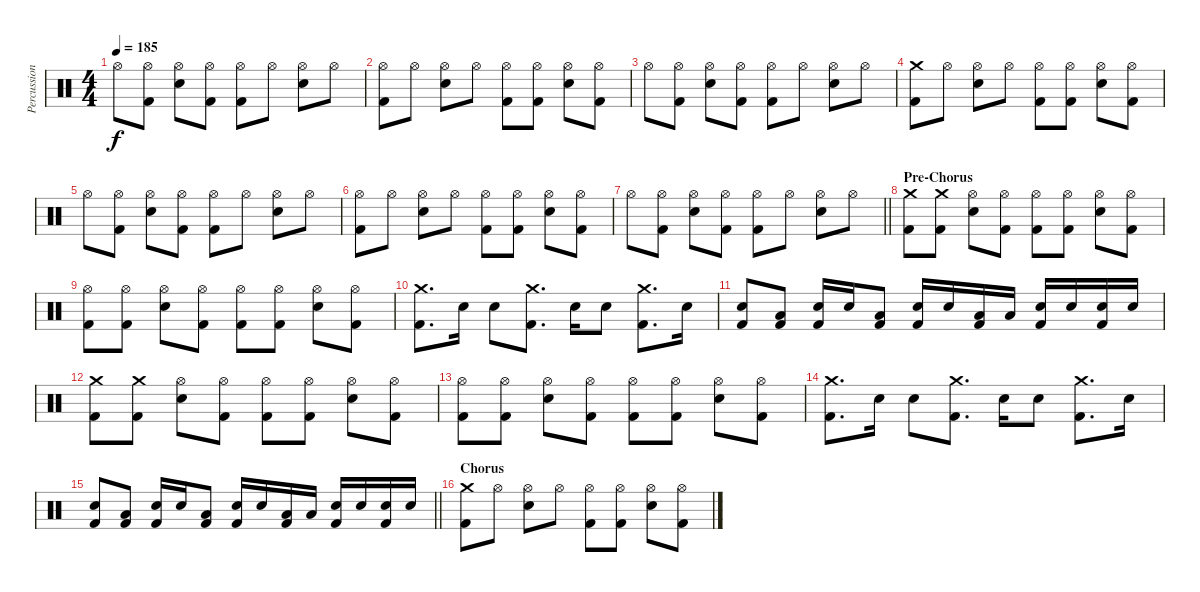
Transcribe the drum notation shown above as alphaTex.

\track ("Percussion" "Percussion") {instrument percussion}
\staff {score}
\articulation defaults
\ts (4 4)
\tempo 185
\clef neutral
\ks c "Hi-Hat (open)".8{dy f}
("Hi-Hat (open)" "Kick (hit) 2").8 ("Hi-Hat (open)" "Electric Snare (hit)").8 ("Hi-Hat (open)" "Kick (hit) 2").8 ("Hi-Hat (open)" "Kick (hit) 2").8 "Hi-Hat (open)".8 ("Hi-Hat (open)" "Electric Snare (hit)").8 "Hi-Hat (open)".8 |
("Hi-Hat (open)" "Kick (hit) 2").8 "Hi-Hat (open)".8 ("Hi-Hat (open)" "Electric Snare (hit)").8 "Hi-Hat (open)".8 ("Hi-Hat (open)" "Kick (hit) 2").8 ("Hi-Hat (open)" "Kick (hit) 2").8 ("Hi-Hat (open)" "Electric Snare (hit)").8 ("Hi-Hat (open)" "Kick (hit) 2").8 |
"Hi-Hat (open)".8 ("Hi-Hat (open)" "Kick (hit) 2").8 ("Hi-Hat (open)" "Electric Snare (hit)").8 ("Hi-Hat (open)" "Kick (hit) 2").8 ("Hi-Hat (open)" "Kick (hit) 2").8 "Hi-Hat (open)".8 ("Hi-Hat (open)" "Electric Snare (hit)").8 "Hi-Hat (open)".8 |
("Crash medium (hit)" "Kick (hit) 2").8 "Hi-Hat (open)".8 ("Hi-Hat (open)" "Electric Snare (hit)").8 "Hi-Hat (open)".8 ("Hi-Hat (open)" "Kick (hit) 2").8 ("Hi-Hat (open)" "Kick (hit) 2").8 ("Hi-Hat (open)" "Electric Snare (hit)").8 ("Hi-Hat (open)" "Kick (hit) 2").8 |
"Hi-Hat (open)".8 ("Hi-Hat (open)" "Kick (hit) 2").8 ("Hi-Hat (open)" "Electric Snare (hit)").8 ("Hi-Hat (open)" "Kick (hit) 2").8 ("Hi-Hat (open)" "Kick (hit) 2").8 "Hi-Hat (open)".8 ("Hi-Hat (open)" "Electric Snare (hit)").8 "Hi-Hat (open)".8 |
("Hi-Hat (open)" "Kick (hit) 2").8 "Hi-Hat (open)".8 ("Hi-Hat (open)" "Electric Snare (hit)").8 "Hi-Hat (open)".8 ("Hi-Hat (open)" "Kick (hit) 2").8 ("Hi-Hat (open)" "Kick (hit) 2").8 ("Hi-Hat (open)" "Electric Snare (hit)").8 ("Hi-Hat (open)" "Kick (hit) 2").8 |
\barLineRight lightlight "Hi-Hat (open)".8
("Hi-Hat (open)" "Kick (hit) 2").8 ("Hi-Hat (open)" "Electric Snare (hit)").8 ("Hi-Hat (open)" "Kick (hit) 2").8 ("Hi-Hat (open)" "Kick (hit) 2").8 "Hi-Hat (open)".8 ("Hi-Hat (open)" "Electric Snare (hit)").8 "Hi-Hat (open)".8 |
\section ("" "Pre-Chorus")
("Crash medium (hit)" "Kick (hit) 2").8 ("Crash medium (hit)" "Kick (hit) 2").8 ("Hi-Hat (open)" "Electric Snare (hit)").8 ("Hi-Hat (open)" "Kick (hit) 2").8 ("Hi-Hat (open)" "Kick (hit) 2").8 ("Hi-Hat (open)" "Kick (hit) 2").8 ("Hi-Hat (open)" "Electric Snare (hit)").8 ("Hi-Hat (open)" "Kick (hit) 2").8 |
("Hi-Hat (open)" "Kick (hit) 2").8 ("Hi-Hat (open)" "Kick (hit) 2").8 ("Hi-Hat (open)" "Electric Snare (hit)").8 ("Hi-Hat (open)" "Kick (hit) 2").8 ("Hi-Hat (open)" "Kick (hit) 2").8 ("Hi-Hat (open)" "Kick (hit) 2").8 ("Hi-Hat (open)" "Electric Snare (hit)").8 ("Hi-Hat (open)" "Kick (hit) 2").8 |
("Crash medium (hit)" "Kick (hit) 2").8{d} "Electric Snare (hit)".16 "Electric Snare (hit)".8 ("Crash medium (hit)" "Kick (hit) 2").8{d} "Electric Snare (hit)".16 "Electric Snare (hit)".8 ("Crash medium (hit)" "Kick (hit) 2").8{d} "Electric Snare (hit)".16 |
("Electric Snare (hit)" "Kick (hit) 2").8 ("Low Floor Tom (hit)" "Kick (hit) 2").8 ("Electric Snare (hit)" "Kick (hit) 2").16 "Electric Snare (hit)".16 ("Low Floor Tom (hit)" "Kick (hit) 2").8 ("Electric Snare (hit)" "Kick (hit) 2").16 "Electric Snare (hit)".16 ("Low Floor Tom (hit)" "Kick (hit) 2").16 "Low Floor Tom (hit)".16 ("Electric Snare (hit)" "Kick (hit) 2").16 "Electric Snare (hit)".16 ("Electric Snare (hit)" "Kick (hit) 2").16 "Electric Snare (hit)".16 |
("Crash medium (hit)" "Kick (hit) 2").8 ("Crash medium (hit)" "Kick (hit) 2").8 ("Hi-Hat (open)" "Electric Snare (hit)").8 ("Hi-Hat (open)" "Kick (hit) 2").8 ("Hi-Hat (open)" "Kick (hit) 2").8 ("Hi-Hat (open)" "Kick (hit) 2").8 ("Hi-Hat (open)" "Electric Snare (hit)").8 ("Hi-Hat (open)" "Kick (hit) 2").8 |
("Hi-Hat (open)" "Kick (hit) 2").8 ("Hi-Hat (open)" "Kick (hit) 2").8 ("Hi-Hat (open)" "Electric Snare (hit)").8 ("Hi-Hat (open)" "Kick (hit) 2").8 ("Hi-Hat (open)" "Kick (hit) 2").8 ("Hi-Hat (open)" "Kick (hit) 2").8 ("Hi-Hat (open)" "Electric Snare (hit)").8 ("Hi-Hat (open)" "Kick (hit) 2").8 |
("Crash medium (hit)" "Kick (hit) 2").8{d} "Electric Snare (hit)".16 "Electric Snare (hit)".8 ("Crash medium (hit)" "Kick (hit) 2").8{d} "Electric Snare (hit)".16 "Electric Snare (hit)".8 ("Crash medium (hit)" "Kick (hit) 2").8{d} "Electric Snare (hit)".16 |
\barLineRight lightlight
("Electric Snare (hit)" "Kick (hit) 2").8 ("Low Floor Tom (hit)" "Kick (hit) 2").8 ("Electric Snare (hit)" "Kick (hit) 2").16 "Electric Snare (hit)".16 ("Low Floor Tom (hit)" "Kick (hit) 2").8 ("Electric Snare (hit)" "Kick (hit) 2").16 "Electric Snare (hit)".16 ("Low Floor Tom (hit)" "Kick (hit) 2").16 "Low Floor Tom (hit)".16 ("Electric Snare (hit)" "Kick (hit) 2").16 "Electric Snare (hit)".16 ("Electric Snare (hit)" "Kick (hit) 2").16 "Electric Snare (hit)".16 |
\section ("" "Chorus")
("Crash medium (hit)" "Kick (hit) 2").8 "Hi-Hat (open)".8 ("Hi-Hat (open)" "Electric Snare (hit)").8 "Hi-Hat (open)".8 ("Hi-Hat (open)" "Kick (hit) 2").8 ("Hi-Hat (open)" "Kick (hit) 2").8 ("Hi-Hat (open)" "Electric Snare (hit)").8 ("Hi-Hat (open)" "Kick (hit) 2").8
